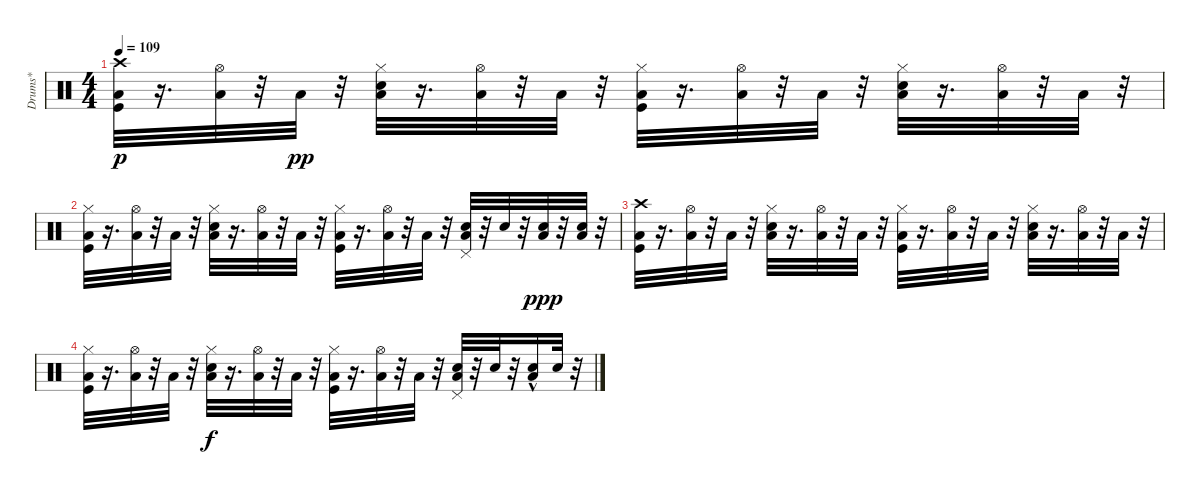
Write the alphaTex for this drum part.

\track ("Drums*" "Drums*") {instrument percussion}
\staff {score}
\articulation defaults
\ts (4 4)
\tempo 109
\clef neutral
\ks c
("Crash high (hit)" "Kick (hit)" "Low Tom (hit)").32{dy p} r.16{d} ("Hi-Hat (open)" "Low Tom (hit)").32 r.32 "Low Tom (hit)".32{dy pp} r.32 ("Hi-Hat (closed)" "Snare (hit) 2" "Low Tom (hit)").32 r.16{d} ("Hi-Hat (open)" "Low Tom (hit)").32 r.32 "Low Tom (hit)".32 r.32 ("Hi-Hat (closed)" "Kick (hit)" "Low Tom (hit)").32 r.16{d} ("Hi-Hat (open)" "Low Tom (hit)").32 r.32 "Low Tom (hit)".32 r.32 ("Hi-Hat (closed)" "Snare (hit) 2" "Low Tom (hit)").32 r.16{d} ("Hi-Hat (open)" "Low Tom (hit)").32 r.32 "Low Tom (hit)".32 r.32 |
("Hi-Hat (closed)" "Kick (hit)" "Low Tom (hit)").32 r.16{d} ("Hi-Hat (open)" "Low Tom (hit)").32 r.32 "Low Tom (hit)".32 r.32 ("Hi-Hat (closed)" "Snare (hit) 2" "Low Tom (hit)").32 r.16{d} ("Hi-Hat (open)" "Low Tom (hit)").32 r.32 "Low Tom (hit)".32 r.32 ("Hi-Hat (closed)" "Kick (hit)" "Low Tom (hit)").32 r.16{d} ("Hi-Hat (open)" "Low Tom (hit)").32 r.32 "Low Tom (hit)".32 r.32 ("Pedal Hi-Hat (hit)" "Snare (hit) 2" "Low Tom (hit)").32 r.32 "Snare (hit) 2".32 r.32 ("Snare (hit) 2" "Low Tom (hit)").32{dy ppp} r.32 ("Snare (hit) 2" "Low Tom (hit)").32 r.32 |
("Crash high (hit)" "Kick (hit)" "Low Tom (hit)").32 r.16{d} ("Hi-Hat (open)" "Low Tom (hit)").32 r.32 "Low Tom (hit)".32 r.32 ("Hi-Hat (closed)" "Snare (hit) 2" "Low Tom (hit)").32 r.16{d} ("Hi-Hat (open)" "Low Tom (hit)").32 r.32 "Low Tom (hit)".32 r.32 ("Hi-Hat (closed)" "Kick (hit)" "Low Tom (hit)").32 r.16{d} ("Hi-Hat (open)" "Low Tom (hit)").32 r.32 "Low Tom (hit)".32 r.32 ("Hi-Hat (closed)" "Snare (hit) 2" "Low Tom (hit)").32 r.16{d} ("Hi-Hat (open)" "Low Tom (hit)").32 r.32 "Low Tom (hit)".32 r.32 |
("Hi-Hat (closed)" "Kick (hit)" "Low Tom (hit)").32 r.16{d} ("Hi-Hat (open)" "Low Tom (hit)").32 r.32 "Low Tom (hit)".32 r.32 ("Hi-Hat (closed)" "Snare (hit) 2" "Low Tom (hit)").32{dy f} r.16{d} ("Hi-Hat (open)" "Low Tom (hit)").32 r.32 "Low Tom (hit)".32 r.32 ("Hi-Hat (closed)" "Kick (hit)" "Low Tom (hit)").32 r.16{d} ("Hi-Hat (open)" "Low Tom (hit)").32 r.32 "Low Tom (hit)".32 r.32 ("Pedal Hi-Hat (hit)" "Snare (hit) 2" "Low Tom (hit)").32 r.32 "Snare (hit) 2".32 r.32 ("Snare (hit) 2" "Low Tom (hit)"{hac}).16 "Snare (hit) 2".32 r.32
